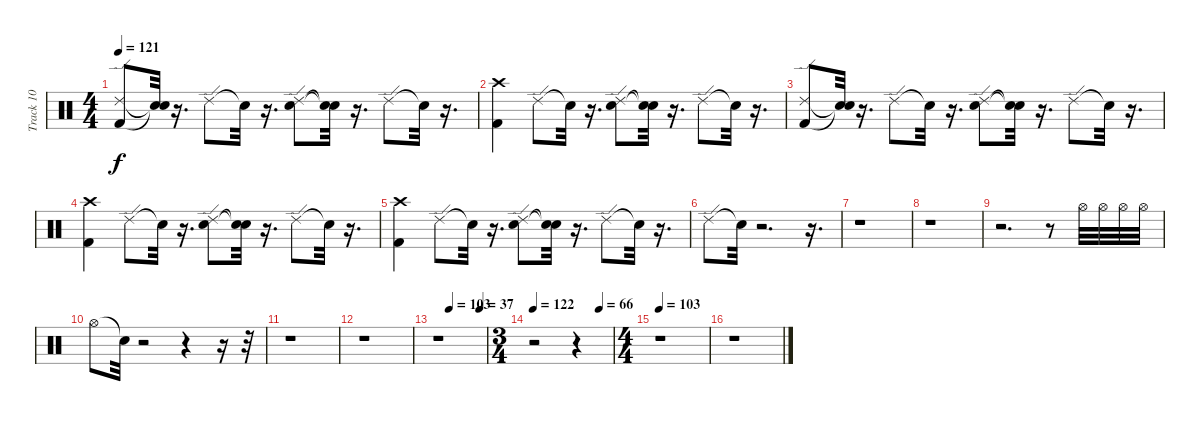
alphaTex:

\track ("Track 10" "Track 10") {instrument percussion}
\staff {score}
\articulation defaults
\ts (4 4)
\tempo 121
\clef neutral
\ks c
("Ride (edge) 2" "Kick (hit) 2").8{dy f} ("Snare (hit)"{t} "Snare (hit)"{t}).32 r.16{d} "Ride (edge) 2".8 "Snare (hit)"{t}.32 r.16{d} ("Ride (edge) 2" "Snare (hit) 2").8 ("Snare (hit)"{t} "Snare (hit)"{t}).32 r.16{d} "Ride (edge) 2".8 "Snare (hit)"{t}.32 r.16{d} |
("Crash high (hit)" "Kick (hit) 2").4 "Ride (edge) 2".8 "Snare (hit)"{t}.32 r.16{d} ("Ride (edge) 2" "Snare (hit) 2").8 ("Snare (hit)"{t} "Snare (hit)"{t}).32 r.16{d} "Ride (edge) 2".8 "Snare (hit)"{t}.32 r.16{d} |
("Ride (edge) 2" "Kick (hit) 2").8 ("Snare (hit)"{t} "Snare (hit)"{t}).32 r.16{d} "Ride (edge) 2".8 "Snare (hit)"{t}.32 r.16{d} ("Ride (edge) 2" "Snare (hit) 2").8 ("Snare (hit)"{t} "Snare (hit)"{t}).32 r.16{d} "Ride (edge) 2".8 "Snare (hit)"{t}.32 r.16{d} |
("Crash high (hit)" "Kick (hit) 2").4 "Ride (edge) 2".8 "Snare (hit)"{t}.32 r.16{d} ("Ride (edge) 2" "Snare (hit) 2").8 ("Snare (hit)"{t} "Snare (hit)"{t}).32 r.16{d} "Ride (edge) 2".8 "Snare (hit)"{t}.32 r.16{d} |
("Crash high (hit)" "Kick (hit) 2").4 "Ride (edge) 2".8 "Snare (hit)"{t}.32 r.16{d} ("Ride (edge) 2" "Snare (hit) 2").8 ("Snare (hit)"{t} "Snare (hit)"{t}).32 r.16{d} "Ride (edge) 2".8 "Snare (hit)"{t}.32 r.16{d} |
"Ride (edge) 2".8 "Snare (hit)"{t}.32 r.2{d} r.16{d} |
r.1 |
r.1 |
r.2{d} r.8 "Hi-Hat (open)".32 "Hi-Hat (open)".32 "Hi-Hat (open)".32 "Hi-Hat (open)".32 |
"Hi-Hat (open)".8 "Snare (hit)"{t}.32 r.2 r.4 r.16 r.32 |
r.1 |
r.1 |
\tempo (103 0.25)
\tempo (37 0.875)
r.1 |
\ts (3 4)
\tempo 122
\tempo (66 0.8333333333333334)
r.2 r.4 |
\ts (4 4)
\tempo 103
r.1 |
r.1
